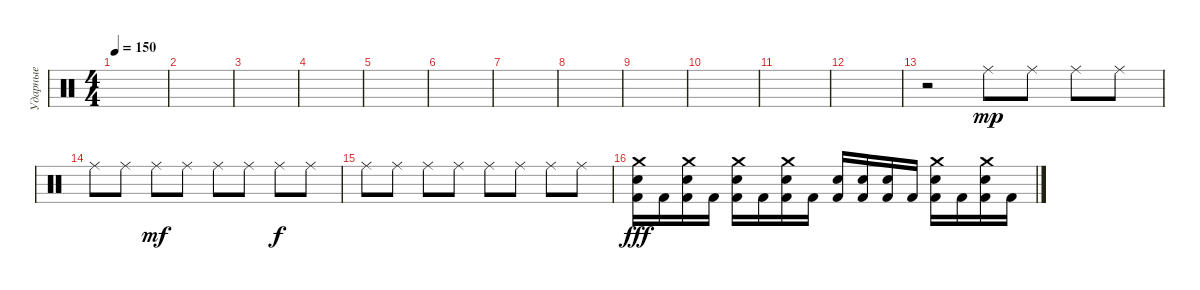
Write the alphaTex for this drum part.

\track ("Ударные" "Ударные") {instrument percussion}
\staff {score}
\articulation defaults
\ts (4 4)
\tempo 150
\clef neutral
\ks c
|
|
|
|
|
|
|
|
|
|
|
|
r.2 "Ride (middle)".8{dy mp} "Ride (middle)".8 "Ride (middle)".8 "Ride (middle)".8 |
"Ride (middle)".8 "Ride (middle)".8 "Ride (middle)".8{dy mf} "Ride (middle)".8 "Ride (middle)".8 "Ride (middle)".8 "Ride (middle)".8{dy f} "Ride (middle)".8 |
"Ride (middle)".8 "Ride (middle)".8 "Ride (middle)".8 "Ride (middle)".8 "Ride (middle)".8 "Ride (middle)".8 "Ride (middle)".8 "Ride (middle)".8 |
("Crash medium (hit)" "Electric Snare (hit)" "Kick (hit) 2").16{dy fff} "Kick (hit) 2".16 ("Crash medium (hit)" "Electric Snare (hit)" "Kick (hit) 2").16 "Kick (hit) 2".16 ("Crash medium (hit)" "Electric Snare (hit)" "Kick (hit) 2").16 "Kick (hit) 2".16 ("Crash medium (hit)" "Electric Snare (hit)" "Kick (hit) 2").16 "Kick (hit) 2".16 ("Electric Snare (hit)" "Kick (hit) 2").16 ("Electric Snare (hit)" "Kick (hit) 2").16 ("Electric Snare (hit)" "Kick (hit) 2").16 "Kick (hit) 2".16 ("Crash medium (hit)" "Electric Snare (hit)" "Kick (hit) 2").16 "Kick (hit) 2".16 ("Crash medium (hit)" "Electric Snare (hit)" "Kick (hit) 2").16 "Kick (hit) 2".16
